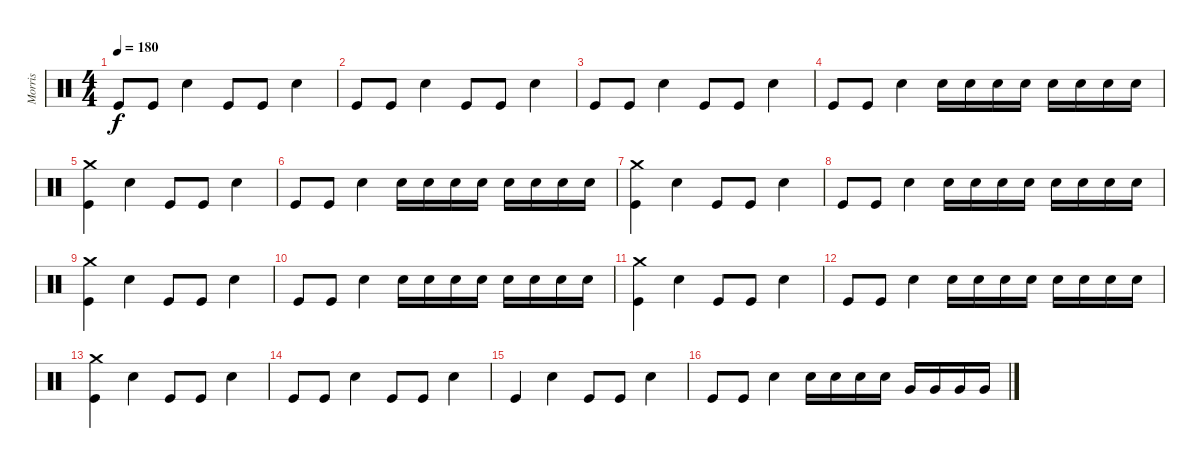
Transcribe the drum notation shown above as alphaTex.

\track ("Morris" "Morris") {instrument percussion}
\staff {score}
\articulation defaults
\ts (4 4)
\tempo 180
\clef neutral
\ks c "Kick (hit)".8{dy f} "Kick (hit)".8 "Electric Snare (hit)".4 "Kick (hit)".8 "Kick (hit)".8 "Electric Snare (hit)".4
|
"Kick (hit)".8 "Kick (hit)".8 "Electric Snare (hit)".4 "Kick (hit)".8 "Kick (hit)".8 "Electric Snare (hit)".4 |
"Kick (hit)".8 "Kick (hit)".8 "Electric Snare (hit)".4 "Kick (hit)".8 "Kick (hit)".8 "Electric Snare (hit)".4 |
"Kick (hit)".8 "Kick (hit)".8 "Electric Snare (hit)".4 "Electric Snare (hit)".16 "Electric Snare (hit)".16 "Electric Snare (hit)".16 "Electric Snare (hit)".16 "Electric Snare (hit)".16 "Electric Snare (hit)".16 "Electric Snare (hit)".16 "Electric Snare (hit)".16 |
("Crash medium (hit)" "Kick (hit)").4 "Electric Snare (hit)".4 "Kick (hit)".8 "Kick (hit)".8 "Electric Snare (hit)".4 |
"Kick (hit)".8 "Kick (hit)".8 "Electric Snare (hit)".4 "Electric Snare (hit)".16 "Electric Snare (hit)".16 "Electric Snare (hit)".16 "Electric Snare (hit)".16 "Electric Snare (hit)".16 "Electric Snare (hit)".16 "Electric Snare (hit)".16 "Electric Snare (hit)".16 |
("Crash medium (hit)" "Kick (hit)").4 "Electric Snare (hit)".4 "Kick (hit)".8 "Kick (hit)".8 "Electric Snare (hit)".4 |
"Kick (hit)".8 "Kick (hit)".8 "Electric Snare (hit)".4 "Electric Snare (hit)".16 "Electric Snare (hit)".16 "Electric Snare (hit)".16 "Electric Snare (hit)".16 "Electric Snare (hit)".16 "Electric Snare (hit)".16 "Electric Snare (hit)".16 "Electric Snare (hit)".16 |
("Crash medium (hit)" "Kick (hit)").4 "Electric Snare (hit)".4 "Kick (hit)".8 "Kick (hit)".8 "Electric Snare (hit)".4 |
"Kick (hit)".8 "Kick (hit)".8 "Electric Snare (hit)".4 "Electric Snare (hit)".16 "Electric Snare (hit)".16 "Electric Snare (hit)".16 "Electric Snare (hit)".16 "Electric Snare (hit)".16 "Electric Snare (hit)".16 "Electric Snare (hit)".16 "Electric Snare (hit)".16 |
("Crash medium (hit)" "Kick (hit)").4 "Electric Snare (hit)".4 "Kick (hit)".8 "Kick (hit)".8 "Electric Snare (hit)".4 |
"Kick (hit)".8 "Kick (hit)".8 "Electric Snare (hit)".4 "Electric Snare (hit)".16 "Electric Snare (hit)".16 "Electric Snare (hit)".16 "Electric Snare (hit)".16 "Electric Snare (hit)".16 "Electric Snare (hit)".16 "Electric Snare (hit)".16 "Electric Snare (hit)".16 |
("Crash medium (hit)" "Kick (hit)").4 "Electric Snare (hit)".4 "Kick (hit)".8 "Kick (hit)".8 "Electric Snare (hit)".4 |
"Kick (hit)".8 "Kick (hit)".8 "Electric Snare (hit)".4 "Kick (hit)".8 "Kick (hit)".8 "Electric Snare (hit)".4 |
"Kick (hit)".4 "Electric Snare (hit)".4 "Kick (hit)".8 "Kick (hit)".8 "Electric Snare (hit)".4 |
"Kick (hit)".8 "Kick (hit)".8 "Electric Snare (hit)".4 "Electric Snare (hit)".16 "Electric Snare (hit)".16 "Electric Snare (hit)".16 "Electric Snare (hit)".16 "Very Low Tom (hit)".16 "Very Low Tom (hit)".16 "Very Low Tom (hit)".16 "Very Low Tom (hit)".16
